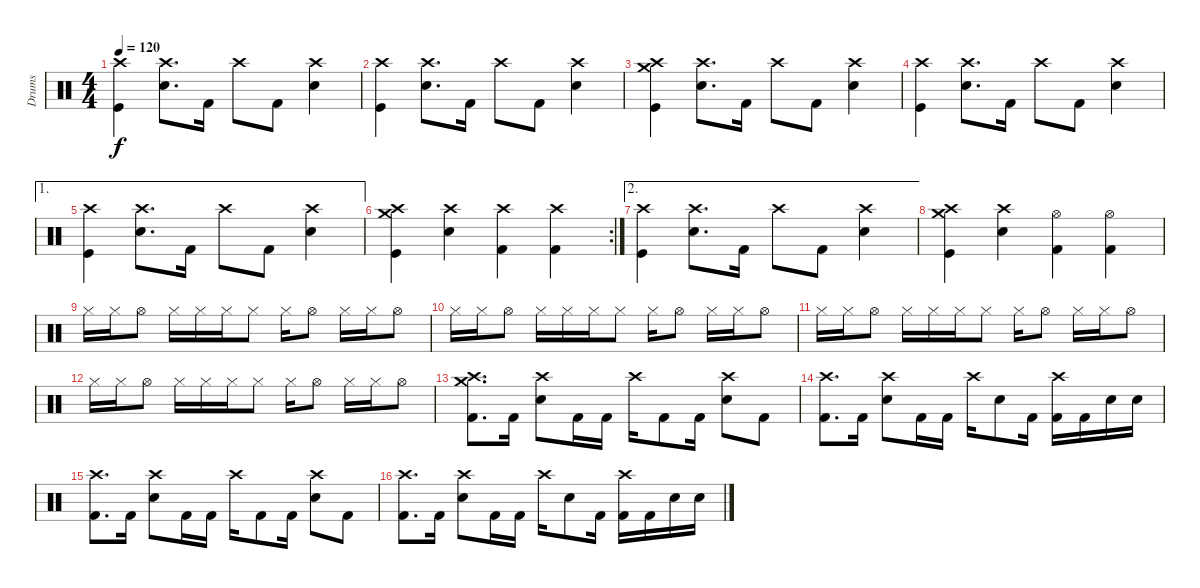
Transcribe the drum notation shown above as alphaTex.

\track ("Drums" "Drums") {instrument percussion}
\staff {score}
\articulation defaults
\ts (4 4)
\tempo 120
\clef neutral
\ks c
("Crash high (hit)" "Kick (hit)").4{dy f} ("Crash high (hit)" "Snare (hit) 2").8{d} "Kick (hit) 2".16 "Crash high (hit)".8 "Kick (hit) 2".8 ("Crash high (hit)" "Snare (hit) 2").4 |
("Crash high (hit)" "Kick (hit)").4 ("Crash high (hit)" "Snare (hit) 2").8{d} "Kick (hit) 2".16 "Crash high (hit)".8 "Kick (hit) 2".8 ("Crash high (hit)" "Snare (hit) 2").4 |
("Crash high (hit)" "Crash medium (hit)" "Kick (hit)").4 ("Crash high (hit)" "Snare (hit) 2").8{d} "Kick (hit) 2".16 "Crash high (hit)".8 "Kick (hit) 2".8 ("Crash high (hit)" "Snare (hit) 2").4 |
("Crash high (hit)" "Kick (hit)").4 ("Crash high (hit)" "Snare (hit) 2").8{d} "Kick (hit) 2".16 "Crash high (hit)".8 "Kick (hit) 2".8 ("Crash high (hit)" "Snare (hit) 2").4 |
\ae 1
("Crash high (hit)" "Kick (hit)").4 ("Crash high (hit)" "Snare (hit) 2").8{d} "Kick (hit) 2".16 "Crash high (hit)".8 "Kick (hit) 2".8 ("Crash high (hit)" "Snare (hit) 2").4 |
\rc 2
("Crash high (hit)" "Crash medium (hit)" "Kick (hit)").4 ("Crash high (hit)" "Snare (hit) 2").4 ("Crash high (hit)" "Kick (hit) 2").4 ("Crash high (hit)" "Kick (hit) 2").4 |
\ae 2
("Crash high (hit)" "Kick (hit)").4 ("Crash high (hit)" "Snare (hit) 2").8{d} "Kick (hit) 2".16 "Crash high (hit)".8 "Kick (hit) 2".8 ("Crash high (hit)" "Snare (hit) 2").4 |
("Crash high (hit)" "Crash medium (hit)" "Kick (hit)").4 ("Crash high (hit)" "Snare (hit) 2").4 ("Hi-Hat (open)" "Kick (hit) 2").4 ("Hi-Hat (open)" "Kick (hit) 2").4 |
"Hi-Hat (closed)".16 "Hi-Hat (closed)".16 "Hi-Hat (open)".8 "Hi-Hat (closed)".16 "Hi-Hat (closed)".16 "Hi-Hat (closed)".16 "Hi-Hat (closed)".8 "Hi-Hat (closed)".16 "Hi-Hat (open)".8 "Hi-Hat (closed)".16 "Hi-Hat (closed)".16 "Hi-Hat (open)".8 |
"Hi-Hat (closed)".16 "Hi-Hat (closed)".16 "Hi-Hat (open)".8 "Hi-Hat (closed)".16 "Hi-Hat (closed)".16 "Hi-Hat (closed)".16 "Hi-Hat (closed)".8 "Hi-Hat (closed)".16 "Hi-Hat (open)".8 "Hi-Hat (closed)".16 "Hi-Hat (closed)".16 "Hi-Hat (open)".8 |
"Hi-Hat (closed)".16 "Hi-Hat (closed)".16 "Hi-Hat (open)".8 "Hi-Hat (closed)".16 "Hi-Hat (closed)".16 "Hi-Hat (closed)".16 "Hi-Hat (closed)".8 "Hi-Hat (closed)".16 "Hi-Hat (open)".8 "Hi-Hat (closed)".16 "Hi-Hat (closed)".16 "Hi-Hat (open)".8 |
"Hi-Hat (closed)".16 "Hi-Hat (closed)".16 "Hi-Hat (open)".8 "Hi-Hat (closed)".16 "Hi-Hat (closed)".16 "Hi-Hat (closed)".16 "Hi-Hat (closed)".8 "Hi-Hat (closed)".16 "Hi-Hat (open)".8 "Hi-Hat (closed)".16 "Hi-Hat (closed)".16 "Hi-Hat (open)".8 |
("Crash high (hit)" "Crash medium (hit)" "Kick (hit) 2").8{d} "Kick (hit) 2".16 ("Crash high (hit)" "Snare (hit) 2").8 "Kick (hit) 2".16 "Kick (hit) 2".16 "Crash high (hit)".16 "Kick (hit) 2".8 "Kick (hit) 2".16 ("Crash high (hit)" "Snare (hit) 2").8 "Kick (hit) 2".8 |
("Crash high (hit)" "Kick (hit) 2").8{d} "Kick (hit) 2".16 ("Crash high (hit)" "Snare (hit) 2").8 "Kick (hit) 2".16 "Kick (hit) 2".16 "Crash high (hit)".16 "Snare (hit) 2".8 "Kick (hit) 2".16 ("Crash high (hit)" "Kick (hit) 2").16 "Kick (hit) 2".16 "Snare (hit) 2".16 "Snare (hit) 2".16 |
("Crash high (hit)" "Kick (hit) 2").8{d} "Kick (hit) 2".16 ("Crash high (hit)" "Snare (hit) 2").8 "Kick (hit) 2".16 "Kick (hit) 2".16 "Crash high (hit)".16 "Kick (hit) 2".8 "Kick (hit) 2".16 ("Crash high (hit)" "Snare (hit) 2").8 "Kick (hit) 2".8 |
("Crash high (hit)" "Kick (hit) 2").8{d} "Kick (hit) 2".16 ("Crash high (hit)" "Snare (hit) 2").8 "Kick (hit) 2".16 "Kick (hit) 2".16 "Crash high (hit)".16 "Snare (hit) 2".8 "Kick (hit) 2".16 ("Crash high (hit)" "Kick (hit) 2").16 "Kick (hit) 2".16 "Snare (hit) 2".16 "Snare (hit) 2".16
